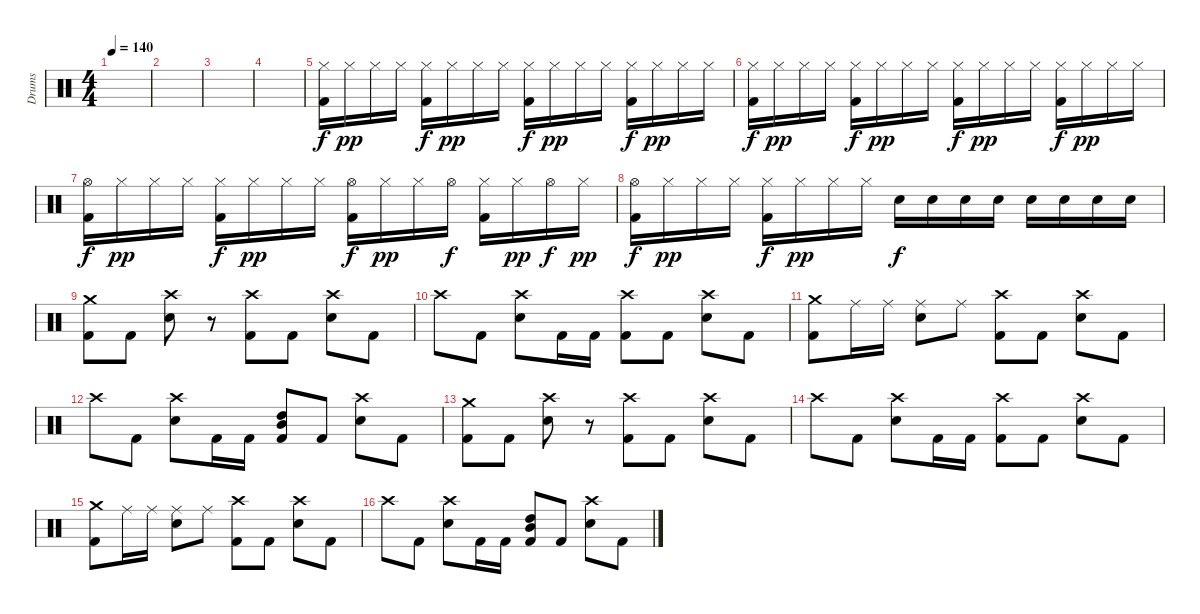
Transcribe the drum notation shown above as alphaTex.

\track ("Drums" "Drums") {instrument percussion}
\staff {score}
\articulation defaults
\ts (4 4)
\tempo 140
\clef neutral
\ks c
|
|
|
|
("Hi-Hat (closed)" "Kick (hit) 2").16 "Hi-Hat (closed)".16{dy pp} "Hi-Hat (closed)".16 "Hi-Hat (closed)".16 ("Hi-Hat (closed)" "Kick (hit) 2").16{dy f} "Hi-Hat (closed)".16{dy pp} "Hi-Hat (closed)".16 "Hi-Hat (closed)".16 ("Hi-Hat (closed)" "Kick (hit) 2").16{dy f} "Hi-Hat (closed)".16{dy pp} "Hi-Hat (closed)".16 "Hi-Hat (closed)".16 ("Hi-Hat (closed)" "Kick (hit) 2").16{dy f} "Hi-Hat (closed)".16{dy pp} "Hi-Hat (closed)".16 "Hi-Hat (closed)".16 |
("Hi-Hat (closed)" "Kick (hit) 2").16{dy f} "Hi-Hat (closed)".16{dy pp} "Hi-Hat (closed)".16 "Hi-Hat (closed)".16 ("Hi-Hat (closed)" "Kick (hit) 2").16{dy f} "Hi-Hat (closed)".16{dy pp} "Hi-Hat (closed)".16 "Hi-Hat (closed)".16 ("Hi-Hat (closed)" "Kick (hit) 2").16{dy f} "Hi-Hat (closed)".16{dy pp} "Hi-Hat (closed)".16 "Hi-Hat (closed)".16 ("Hi-Hat (closed)" "Kick (hit) 2").16{dy f} "Hi-Hat (closed)".16{dy pp} "Hi-Hat (closed)".16 "Hi-Hat (closed)".16 |
("Hi-Hat (open)" "Kick (hit) 2").16{dy f} "Hi-Hat (closed)".16{dy pp} "Hi-Hat (closed)".16 "Hi-Hat (closed)".16 ("Hi-Hat (closed)" "Kick (hit) 2").16{dy f} "Hi-Hat (closed)".16{dy pp} "Hi-Hat (closed)".16 "Hi-Hat (closed)".16 ("Hi-Hat (open)" "Kick (hit) 2").16{dy f} "Hi-Hat (closed)".16{dy pp} "Hi-Hat (closed)".16 "Hi-Hat (open)".16{dy f} ("Hi-Hat (closed)" "Kick (hit) 2").16 "Hi-Hat (closed)".16{dy pp} "Hi-Hat (open)".16{dy f} "Hi-Hat (closed)".16{dy pp} |
("Hi-Hat (open)" "Kick (hit) 2").16{dy f} "Hi-Hat (closed)".16{dy pp} "Hi-Hat (closed)".16 "Hi-Hat (closed)".16 ("Hi-Hat (closed)" "Kick (hit) 2").16{dy f} "Hi-Hat (closed)".16{dy pp} "Hi-Hat (closed)".16 "Hi-Hat (closed)".16 "Electric Snare (hit)".16{dy f} "Electric Snare (hit)".16 "Electric Snare (hit)".16 "Electric Snare (hit)".16 "Electric Snare (hit)".16 "Electric Snare (hit)".16 "Electric Snare (hit)".16 "Electric Snare (hit)".16 |
("Crash medium (hit)" "Kick (hit) 2").8 "Kick (hit) 2".8 ("Crash high (hit)" "Electric Snare (hit)").8 r.8 ("Crash high (hit)" "Kick (hit) 2").8 "Kick (hit) 2".8 ("Crash high (hit)" "Electric Snare (hit)").8 "Kick (hit) 2".8 |
"Crash high (hit)".8 "Kick (hit) 2".8 ("Crash high (hit)" "Electric Snare (hit)").8 "Kick (hit) 2".16 "Kick (hit) 2".16 ("Crash high (hit)" "Kick (hit) 2").8 "Kick (hit) 2".8 ("Crash high (hit)" "Electric Snare (hit)").8 "Kick (hit) 2".8 |
("Crash medium (hit)" "Kick (hit) 2").8 "Ride (middle)".16 "Ride (middle)".16 ("Ride (middle)" "Electric Snare (hit)").8 "Ride (middle)".8 ("Crash high (hit)" "Kick (hit) 2").8 "Kick (hit) 2".8 ("Crash high (hit)" "Electric Snare (hit)").8 "Kick (hit) 2".8 |
"Crash high (hit)".8 "Kick (hit) 2".8 ("Crash high (hit)" "Electric Snare (hit)").8 "Kick (hit) 2".16 "Kick (hit) 2".16 ("Mid Tom (hit)" "High Tom (hit)" "Kick (hit) 2").8 "Kick (hit) 2".8 ("Crash high (hit)" "Electric Snare (hit)").8 "Kick (hit) 2".8 |
("Crash medium (hit)" "Kick (hit) 2").8 "Kick (hit) 2".8 ("Crash high (hit)" "Electric Snare (hit)").8 r.8 ("Crash high (hit)" "Kick (hit) 2").8 "Kick (hit) 2".8 ("Crash high (hit)" "Electric Snare (hit)").8 "Kick (hit) 2".8 |
"Crash high (hit)".8 "Kick (hit) 2".8 ("Crash high (hit)" "Electric Snare (hit)").8 "Kick (hit) 2".16 "Kick (hit) 2".16 ("Crash high (hit)" "Kick (hit) 2").8 "Kick (hit) 2".8 ("Crash high (hit)" "Electric Snare (hit)").8 "Kick (hit) 2".8 |
("Crash medium (hit)" "Kick (hit) 2").8 "Ride (middle)".16 "Ride (middle)".16 ("Ride (middle)" "Electric Snare (hit)").8 "Ride (middle)".8 ("Crash high (hit)" "Kick (hit) 2").8 "Kick (hit) 2".8 ("Crash high (hit)" "Electric Snare (hit)").8 "Kick (hit) 2".8 |
"Crash high (hit)".8 "Kick (hit) 2".8 ("Crash high (hit)" "Electric Snare (hit)").8 "Kick (hit) 2".16 "Kick (hit) 2".16 ("Mid Tom (hit)" "High Tom (hit)" "Kick (hit) 2").8 "Kick (hit) 2".8 ("Crash high (hit)" "Electric Snare (hit)").8 "Kick (hit) 2".8
